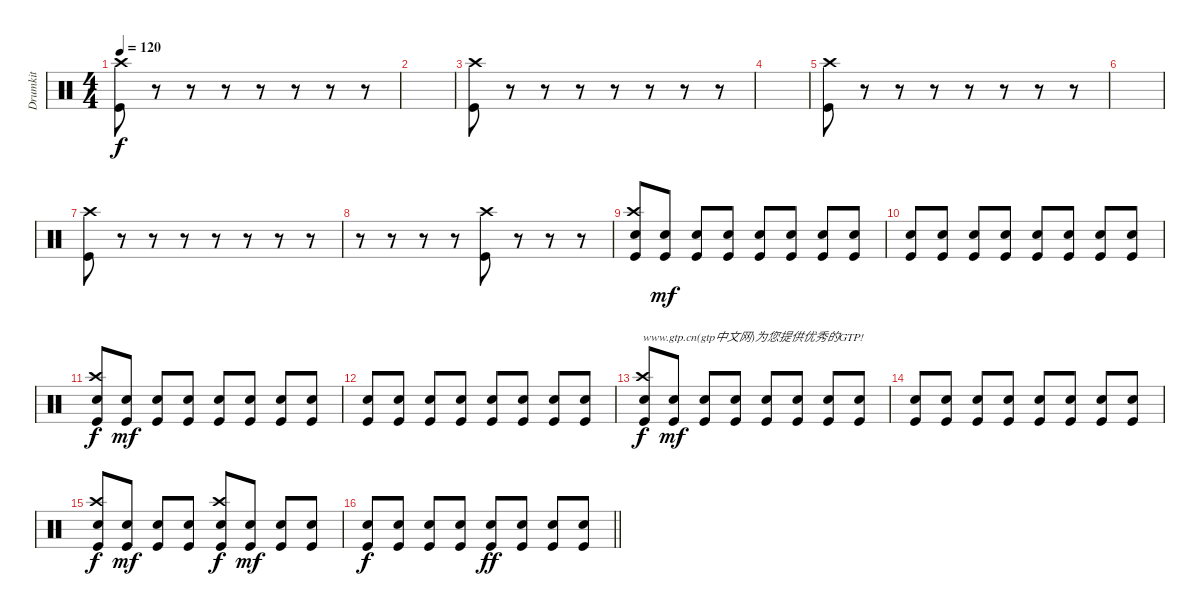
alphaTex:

\track ("Drumkit" "Drumkit") {instrument percussion}
\staff {score}
\articulation defaults
\ts (4 4)
\tempo 120
\clef neutral
\ks c
("Kick (hit)" "Crash high (hit)").8{dy f} r.8 r.8 r.8 r.8 r.8 r.8 r.8 |
|
("Kick (hit)" "Crash high (hit)").8 r.8 r.8 r.8 r.8 r.8 r.8 r.8 |
|
("Kick (hit)" "Crash high (hit)").8 r.8 r.8 r.8 r.8 r.8 r.8 r.8 |
|
("Kick (hit)" "Crash high (hit)").8 r.8 r.8 r.8 r.8 r.8 r.8 r.8 |
r.8 r.8 r.8 r.8 ("Kick (hit)" "Crash high (hit)").8 r.8 r.8 r.8 |
("Kick (hit)" "Snare (hit) 2" "Crash high (hit)").8 ("Kick (hit)" "Snare (hit) 2").8{dy mf} ("Kick (hit)" "Snare (hit) 2").8 ("Kick (hit)" "Snare (hit) 2").8 ("Kick (hit)" "Snare (hit) 2").8 ("Kick (hit)" "Snare (hit) 2").8 ("Kick (hit)" "Snare (hit) 2").8 ("Kick (hit)" "Snare (hit) 2").8 |
("Kick (hit)" "Snare (hit) 2").8 ("Kick (hit)" "Snare (hit) 2").8 ("Kick (hit)" "Snare (hit) 2").8 ("Kick (hit)" "Snare (hit) 2").8 ("Kick (hit)" "Snare (hit) 2").8 ("Kick (hit)" "Snare (hit) 2").8 ("Kick (hit)" "Snare (hit) 2").8 ("Kick (hit)" "Snare (hit) 2").8 |
("Kick (hit)" "Snare (hit) 2" "Crash high (hit)").8{dy f} ("Kick (hit)" "Snare (hit) 2").8{dy mf} ("Kick (hit)" "Snare (hit) 2").8 ("Kick (hit)" "Snare (hit) 2").8 ("Kick (hit)" "Snare (hit) 2").8 ("Kick (hit)" "Snare (hit) 2").8 ("Kick (hit)" "Snare (hit) 2").8 ("Kick (hit)" "Snare (hit) 2").8 |
("Kick (hit)" "Snare (hit) 2").8 ("Kick (hit)" "Snare (hit) 2").8 ("Kick (hit)" "Snare (hit) 2").8 ("Kick (hit)" "Snare (hit) 2").8 ("Kick (hit)" "Snare (hit) 2").8 ("Kick (hit)" "Snare (hit) 2").8 ("Kick (hit)" "Snare (hit) 2").8 ("Kick (hit)" "Snare (hit) 2").8 |
("Kick (hit)" "Snare (hit) 2" "Crash high (hit)").8{txt "www.gtp.cn(gtp中文网)为您提供优秀的GTP!" dy f} ("Kick (hit)" "Snare (hit) 2").8{dy mf} ("Kick (hit)" "Snare (hit) 2").8 ("Kick (hit)" "Snare (hit) 2").8 ("Kick (hit)" "Snare (hit) 2").8 ("Kick (hit)" "Snare (hit) 2").8 ("Kick (hit)" "Snare (hit) 2").8 ("Kick (hit)" "Snare (hit) 2").8 |
("Kick (hit)" "Snare (hit) 2").8 ("Kick (hit)" "Snare (hit) 2").8 ("Kick (hit)" "Snare (hit) 2").8 ("Kick (hit)" "Snare (hit) 2").8 ("Kick (hit)" "Snare (hit) 2").8 ("Kick (hit)" "Snare (hit) 2").8 ("Kick (hit)" "Snare (hit) 2").8 ("Kick (hit)" "Snare (hit) 2").8 |
("Kick (hit)" "Snare (hit) 2" "Crash high (hit)").8{dy f} ("Kick (hit)" "Snare (hit) 2").8{dy mf} ("Kick (hit)" "Snare (hit) 2").8 ("Kick (hit)" "Snare (hit) 2").8 ("Kick (hit)" "Snare (hit) 2" "Crash high (hit)").8{dy f} ("Kick (hit)" "Snare (hit) 2").8{dy mf} ("Kick (hit)" "Snare (hit) 2").8 ("Kick (hit)" "Snare (hit) 2").8 |
\barLineRight lightlight
("Kick (hit)" "Snare (hit) 2").8{dy f} ("Kick (hit)" "Snare (hit) 2").8 ("Kick (hit)" "Snare (hit) 2").8 ("Kick (hit)" "Snare (hit) 2").8 ("Kick (hit)" "Snare (hit) 2").8{dy ff} ("Kick (hit)" "Snare (hit) 2").8 ("Kick (hit)" "Snare (hit) 2").8 ("Kick (hit)" "Snare (hit) 2").8
